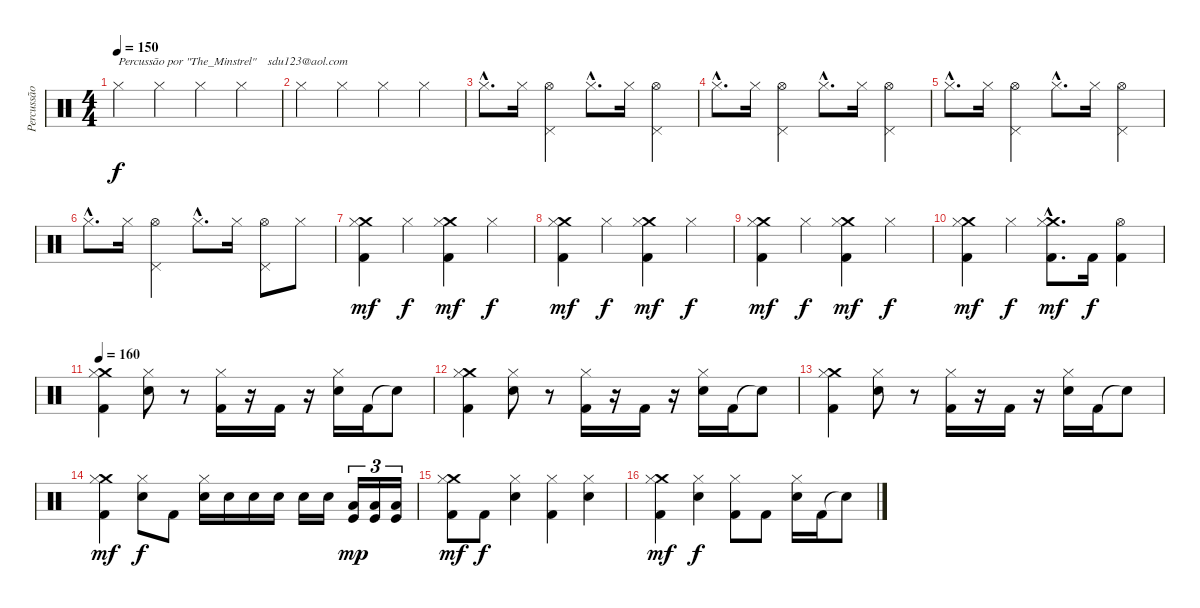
\track ("Percussão" "Percussão") {instrument percussion}
\staff {score}
\articulation defaults
\ts (4 4)
\tempo 150
\clef neutral
\ks c "Hi-Hat (closed)".4{txt "Percussão por \"The_Minstrel\"    sdu123@aol.com" dy f} "Hi-Hat (closed)".4 "Hi-Hat (closed)".4 "Hi-Hat (closed)".4
|
"Hi-Hat (closed)".4 "Hi-Hat (closed)".4 "Hi-Hat (closed)".4 "Hi-Hat (closed)".4 |
"Hi-Hat (closed)"{hac}.8{d} "Hi-Hat (closed)".16 ("Hi-Hat (open)" "Pedal Hi-Hat (hit)").4 "Hi-Hat (closed)"{hac}.8{d} "Hi-Hat (closed)".16 ("Hi-Hat (open)" "Pedal Hi-Hat (hit)").4 |
"Hi-Hat (closed)"{hac}.8{d} "Hi-Hat (closed)".16 ("Hi-Hat (open)" "Pedal Hi-Hat (hit)").4 "Hi-Hat (closed)"{hac}.8{d} "Hi-Hat (closed)".16 ("Hi-Hat (open)" "Pedal Hi-Hat (hit)").4 |
"Hi-Hat (closed)"{hac}.8{d} "Hi-Hat (closed)".16 ("Hi-Hat (open)" "Pedal Hi-Hat (hit)").4 "Hi-Hat (closed)"{hac}.8{d} "Hi-Hat (closed)".16 ("Hi-Hat (open)" "Pedal Hi-Hat (hit)").4 |
"Hi-Hat (closed)"{hac}.8{d} "Hi-Hat (closed)".16 ("Hi-Hat (open)" "Pedal Hi-Hat (hit)").4 "Hi-Hat (closed)"{hac}.8{d} "Hi-Hat (closed)".16 ("Hi-Hat (open)" "Pedal Hi-Hat (hit)").8 "Hi-Hat (closed)".8 |
("Crash medium (hit)" "Hi-Hat (closed)" "Kick (hit) 2").4{dy mf} "Hi-Hat (closed)".4{dy f} ("Crash medium (hit)" "Hi-Hat (closed)" "Kick (hit) 2").4{dy mf} "Hi-Hat (closed)".4{dy f} |
("Crash medium (hit)" "Hi-Hat (closed)" "Kick (hit) 2").4{dy mf} "Hi-Hat (closed)".4{dy f} ("Crash medium (hit)" "Hi-Hat (closed)" "Kick (hit) 2").4{dy mf} "Hi-Hat (closed)".4{dy f} |
("Crash medium (hit)" "Hi-Hat (closed)" "Kick (hit) 2").4{dy mf} "Hi-Hat (closed)".4{dy f} ("Crash medium (hit)" "Hi-Hat (closed)" "Kick (hit) 2").4{dy mf} "Hi-Hat (closed)".4{dy f} |
("Crash medium (hit)" "Hi-Hat (closed)" "Kick (hit) 2").4{dy mf} "Hi-Hat (closed)".4{dy f} ("Crash medium (hit)"{hac} "Hi-Hat (closed)"{hac} "Kick (hit) 2"{hac}).8{d dy mf} "Kick (hit) 2".16{dy f} ("Hi-Hat (open)" "Kick (hit) 2").4 |
\tempo 160
("Crash medium (hit)" "Hi-Hat (closed)" "Kick (hit) 2").4 ("Hi-Hat (closed)" "Snare (hit) 2").8 r.8 ("Hi-Hat (closed)" "Kick (hit) 2").16 r.16 "Kick (hit) 2".16 r.16 ("Hi-Hat (closed)" "Snare (hit) 2").16 "Kick (hit) 2".16 "Snare (hit)"{t}.8 |
("Crash medium (hit)" "Hi-Hat (closed)" "Kick (hit) 2").4 ("Hi-Hat (closed)" "Snare (hit) 2").8 r.8 ("Hi-Hat (closed)" "Kick (hit) 2").16 r.16 "Kick (hit) 2".16 r.16 ("Hi-Hat (closed)" "Snare (hit) 2").16 "Kick (hit) 2".16 "Snare (hit)"{t}.8 |
("Crash medium (hit)" "Hi-Hat (closed)" "Kick (hit) 2").4 ("Hi-Hat (closed)" "Snare (hit) 2").8 r.8 ("Hi-Hat (closed)" "Kick (hit) 2").16 r.16 "Kick (hit) 2".16 r.16 ("Hi-Hat (closed)" "Snare (hit) 2").16 "Kick (hit) 2".16 "Snare (hit)"{t}.8 |
("Crash medium (hit)" "Hi-Hat (closed)" "Kick (hit) 2").4{dy mf} ("Hi-Hat (closed)" "Snare (hit) 2").8{dy f} "Kick (hit) 2".8 ("Hi-Hat (closed)" "Snare (hit) 2").16 "Snare (hit) 2".16 "Snare (hit) 2".16 "Snare (hit) 2".16 "Snare (hit) 2".16 "Snare (hit) 2".16 ("Low Tom (hit)" "Kick (hit)").16{tu (3 2) dy mp} ("Low Tom (hit)" "Kick (hit)").16{tu (3 2)} ("Low Tom (hit)" "Kick (hit)").16{tu (3 2)} |
("Crash medium (hit)" "Hi-Hat (closed)" "Kick (hit) 2").8{dy mf} "Kick (hit) 2".8{dy f} ("Hi-Hat (closed)" "Snare (hit) 2").4 ("Hi-Hat (closed)" "Kick (hit) 2").4 ("Hi-Hat (closed)" "Snare (hit) 2").4 |
("Crash medium (hit)" "Hi-Hat (closed)" "Kick (hit) 2").4{dy mf} ("Hi-Hat (closed)" "Snare (hit) 2").4{dy f} ("Hi-Hat (closed)" "Kick (hit) 2").8 "Kick (hit) 2".8 ("Hi-Hat (closed)" "Snare (hit) 2").16 "Kick (hit) 2".16 "Snare (hit)"{t}.8
